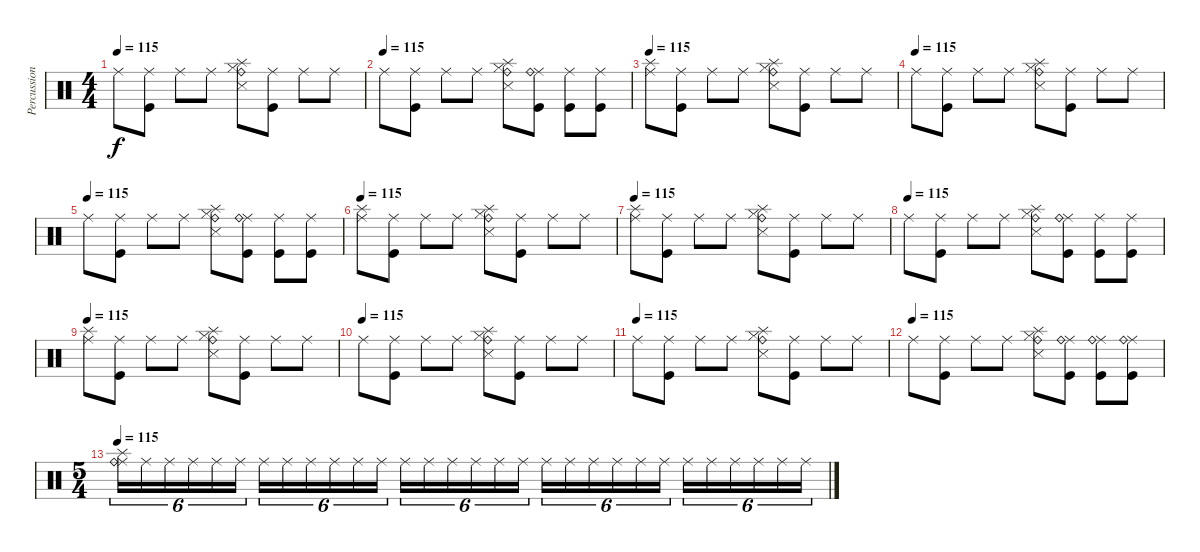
\track ("Percussion" "Percussion") {instrument percussion}
\staff {score}
\articulation defaults
\ts (4 4)
\tempo 115
\clef neutral
\ks c "Ride (middle)".8{dy f}
("Ride (middle)" "Kick (hit)").8 "Ride (middle)".8 "Ride (middle)".8 ("Hi-Hat (closed)" "Snare (side stick) 3" "Splash (hit)" "Ride (bell)").8 ("Ride (middle)" "Kick (hit)").8 "Ride (middle)".8 "Ride (middle)".8 |
\tempo (115)
"Ride (middle)".8 ("Ride (middle)" "Kick (hit)").8 "Ride (middle)".8 "Ride (middle)".8 ("Hi-Hat (closed)" "Snare (side stick) 3" "Splash (hit)" "Ride (bell)").8 ("Ride (middle)" "Kick (hit)" "Ride (bell)").8 ("Ride (middle)" "Kick (hit)").8 ("Ride (middle)" "Kick (hit)").8 |
\tempo 115
("Ride (middle)" "Splash (hit)").8 ("Ride (middle)" "Kick (hit)").8 "Ride (middle)".8 "Ride (middle)".8 ("Hi-Hat (closed)" "Snare (side stick) 3" "Splash (hit)" "Ride (bell)").8 ("Ride (middle)" "Kick (hit)").8 "Ride (middle)".8 "Ride (middle)".8 |
\tempo (115)
"Ride (middle)".8 ("Ride (middle)" "Kick (hit)").8 "Ride (middle)".8 "Ride (middle)".8 ("Hi-Hat (closed)" "Snare (side stick) 3" "Splash (hit)" "Ride (bell)").8 ("Ride (middle)" "Kick (hit)").8 "Ride (middle)".8 "Ride (middle)".8 |
\tempo (115)
"Ride (middle)".8 ("Ride (middle)" "Kick (hit)").8 "Ride (middle)".8 "Ride (middle)".8 ("Hi-Hat (closed)" "Snare (side stick) 3" "Splash (hit)" "Ride (bell)").8 ("Ride (middle)" "Kick (hit)" "Ride (bell)").8 ("Ride (middle)" "Kick (hit)").8 ("Ride (middle)" "Kick (hit)").8 |
\tempo 115
("Ride (middle)" "Splash (hit)").8 ("Ride (middle)" "Kick (hit)").8 "Ride (middle)".8 "Ride (middle)".8 ("Hi-Hat (closed)" "Snare (side stick) 3" "Splash (hit)" "Ride (bell)").8 ("Ride (middle)" "Kick (hit)").8 "Ride (middle)".8 "Ride (middle)".8 |
\tempo 115
("Ride (middle)" "Splash (hit)").8 ("Ride (middle)" "Kick (hit)").8 "Ride (middle)".8 "Ride (middle)".8 ("Hi-Hat (closed)" "Snare (side stick) 3" "Splash (hit)" "Ride (bell)").8 ("Ride (middle)" "Kick (hit)").8 "Ride (middle)".8 "Ride (middle)".8 |
\tempo (115)
"Ride (middle)".8 ("Ride (middle)" "Kick (hit)").8 "Ride (middle)".8 "Ride (middle)".8 ("Hi-Hat (closed)" "Snare (side stick) 3" "Splash (hit)" "Ride (bell)").8 ("Ride (middle)" "Kick (hit)" "Ride (bell)").8 ("Ride (middle)" "Kick (hit)").8 ("Ride (middle)" "Kick (hit)").8 |
\tempo 115
("Ride (middle)" "Splash (hit)").8 ("Ride (middle)" "Kick (hit)").8 "Ride (middle)".8 "Ride (middle)".8 ("Hi-Hat (closed)" "Snare (side stick) 3" "Splash (hit)" "Ride (bell)").8 ("Ride (middle)" "Kick (hit)").8 "Ride (middle)".8 "Ride (middle)".8 |
\tempo (115)
"Ride (middle)".8 ("Ride (middle)" "Kick (hit)").8 "Ride (middle)".8 "Ride (middle)".8 ("Hi-Hat (closed)" "Snare (side stick) 3" "Splash (hit)" "Ride (bell)").8 ("Ride (middle)" "Kick (hit)").8 "Ride (middle)".8 "Ride (middle)".8 |
\tempo (115)
"Ride (middle)".8 ("Ride (middle)" "Kick (hit)").8 "Ride (middle)".8 "Ride (middle)".8 ("Hi-Hat (closed)" "Snare (side stick) 3" "Splash (hit)" "Ride (bell)").8 ("Ride (middle)" "Kick (hit)").8 "Ride (middle)".8 "Ride (middle)".8 |
\tempo (115)
"Ride (middle)".8 ("Ride (middle)" "Kick (hit)").8 "Ride (middle)".8 "Ride (middle)".8 ("Hi-Hat (closed)" "Snare (side stick) 3" "Splash (hit)" "Ride (bell)").8 ("Ride (middle)" "Kick (hit)" "Ride (bell)").8 ("Ride (middle)" "Kick (hit)" "Ride (bell)").8 ("Ride (middle)" "Kick (hit)" "Ride (bell)").8 |
\ts (5 4)
\tempo 115
("Ride (middle)" "Splash (hit)" "Ride (bell)").16{tu (6 4)} "Ride (middle)".16{tu (6 4)} "Ride (middle)".16{tu (6 4)} "Ride (middle)".16{tu (6 4)} "Ride (middle)".16{tu (6 4)} "Ride (middle)".16{tu (6 4)} "Ride (middle)".16{tu (6 4)} "Ride (middle)".16{tu (6 4)} "Ride (middle)".16{tu (6 4)} "Ride (middle)".16{tu (6 4)} "Ride (middle)".16{tu (6 4)} "Ride (middle)".16{tu (6 4)} "Ride (middle)".16{tu (6 4)} "Ride (middle)".16{tu (6 4)} "Ride (middle)".16{tu (6 4)} "Ride (middle)".16{tu (6 4)} "Ride (middle)".16{tu (6 4)} "Ride (middle)".16{tu (6 4)} "Ride (middle)".16{tu (6 4)} "Ride (middle)".16{tu (6 4)} "Ride (middle)".16{tu (6 4)} "Ride (middle)".16{tu (6 4)} "Ride (middle)".16{tu (6 4)} "Ride (middle)".16{tu (6 4)} "Ride (middle)".16{tu (6 4)} "Ride (middle)".16{tu (6 4)} "Ride (middle)".16{tu (6 4)} "Ride (middle)".16{tu (6 4)} "Ride (middle)".16{tu (6 4)} "Ride (middle)".16{tu (6 4)}
